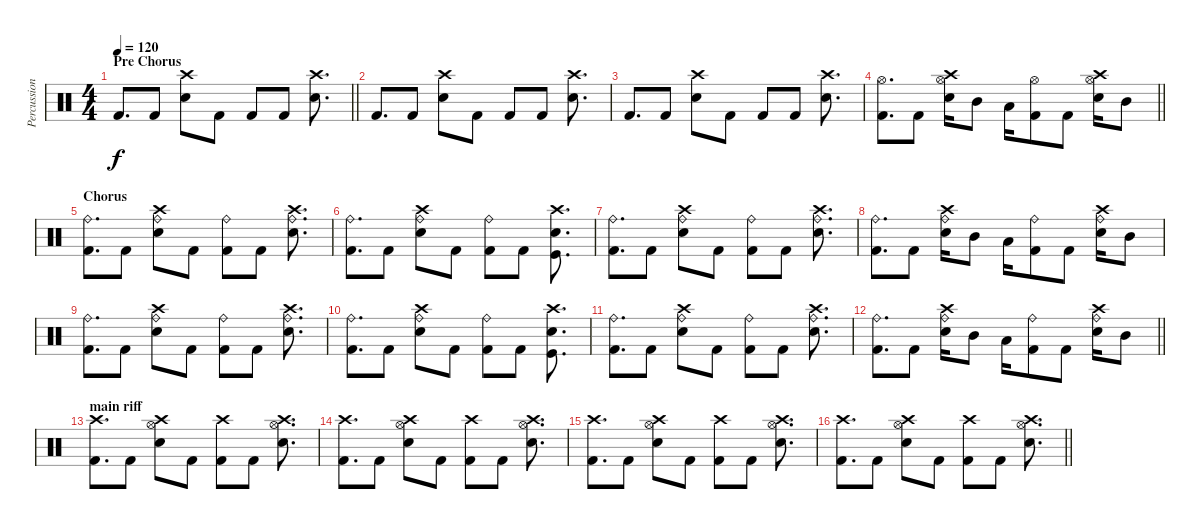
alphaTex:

\track ("Percussion" "Percussion") {instrument percussion}
\staff {score}
\articulation defaults
\ts (4 4)
\section ("" "Pre Chorus")
\tempo 120
\clef neutral
\barLineRight lightlight
\ks c "Kick (hit) 2".8{d dy f} "Kick (hit) 2".8
("Crash high (hit)" "Electric Snare (hit)").8 "Kick (hit) 2".8 "Kick (hit) 2".8 "Kick (hit) 2".8 ("Crash high (hit)" "Electric Snare (hit)").8{d} |
\section ("" "")
"Kick (hit) 2".8{d} "Kick (hit) 2".8 ("Crash high (hit)" "Electric Snare (hit)").8 "Kick (hit) 2".8 "Kick (hit) 2".8 "Kick (hit) 2".8 ("Crash high (hit)" "Electric Snare (hit)").8{d} |
"Kick (hit) 2".8{d} "Kick (hit) 2".8 ("Crash high (hit)" "Electric Snare (hit)").8 "Kick (hit) 2".8 "Kick (hit) 2".8 "Kick (hit) 2".8 ("Crash high (hit)" "Electric Snare (hit)").8{d} |
\barLineRight lightlight
("Hi-Hat (open)" "Kick (hit) 2").8{d} "Kick (hit) 2".8 ("Hi-Hat (open)" "Crash high (hit)" "Electric Snare (hit)").16 "Mid Tom (hit)".8 "Low Tom (hit)".16 ("Hi-Hat (open)" "Kick (hit) 2").8 "Kick (hit) 2".8 ("Hi-Hat (open)" "Crash high (hit)" "Electric Snare (hit)").16 "Mid Tom (hit)".8 |
\section ("" "Chorus")
("Ride (bell)" "Kick (hit) 2").8{d} "Kick (hit) 2".8 ("Ride (bell)" "Crash high (hit)" "Electric Snare (hit)").8 "Kick (hit) 2".8 ("Ride (bell)" "Kick (hit) 2").8 "Kick (hit) 2".8 ("Ride (bell)" "Crash high (hit)" "Electric Snare (hit)").8{d} |
("Ride (bell)" "Kick (hit) 2").8{d} "Kick (hit) 2".8 ("Ride (bell)" "Crash high (hit)" "Electric Snare (hit)").8 "Kick (hit) 2".8 ("Ride (bell)" "Kick (hit) 2").8 "Kick (hit) 2".8 ("Kick (hit)" "Crash high (hit)" "Electric Snare (hit)").8{d} |
("Ride (bell)" "Kick (hit) 2").8{d} "Kick (hit) 2".8 ("Ride (bell)" "Crash high (hit)" "Electric Snare (hit)").8 "Kick (hit) 2".8 ("Ride (bell)" "Kick (hit) 2").8 "Kick (hit) 2".8 ("Ride (bell)" "Crash high (hit)" "Electric Snare (hit)").8{d} |
("Ride (bell)" "Kick (hit) 2").8{d} "Kick (hit) 2".8 ("Ride (bell)" "Crash high (hit)" "Electric Snare (hit)").16 "Mid Tom (hit)".8 "Low Tom (hit)".16 ("Ride (bell)" "Kick (hit) 2").8 "Kick (hit) 2".8 ("Ride (bell)" "Crash high (hit)" "Electric Snare (hit)").16 "Mid Tom (hit)".8 |
("Ride (bell)" "Kick (hit) 2").8{d} "Kick (hit) 2".8 ("Ride (bell)" "Crash high (hit)" "Electric Snare (hit)").8 "Kick (hit) 2".8 ("Ride (bell)" "Kick (hit) 2").8 "Kick (hit) 2".8 ("Ride (bell)" "Crash high (hit)" "Electric Snare (hit)").8{d} |
("Ride (bell)" "Kick (hit) 2").8{d} "Kick (hit) 2".8 ("Ride (bell)" "Crash high (hit)" "Electric Snare (hit)").8 "Kick (hit) 2".8 ("Ride (bell)" "Kick (hit) 2").8 "Kick (hit) 2".8 ("Kick (hit)" "Crash high (hit)" "Electric Snare (hit)").8{d} |
("Ride (bell)" "Kick (hit) 2").8{d} "Kick (hit) 2".8 ("Ride (bell)" "Crash high (hit)" "Electric Snare (hit)").8 "Kick (hit) 2".8 ("Ride (bell)" "Kick (hit) 2").8 "Kick (hit) 2".8 ("Ride (bell)" "Crash high (hit)" "Electric Snare (hit)").8{d} |
\barLineRight lightlight
("Ride (bell)" "Kick (hit) 2").8{d} "Kick (hit) 2".8 ("Ride (bell)" "Crash high (hit)" "Electric Snare (hit)").16 "Mid Tom (hit)".8 "Low Tom (hit)".16 ("Ride (bell)" "Kick (hit) 2").8 "Kick (hit) 2".8 ("Ride (bell)" "Crash high (hit)" "Electric Snare (hit)").16 "Mid Tom (hit)".8 |
\section ("" "main riff")
("Crash high (hit)" "Kick (hit) 2").8{d} "Kick (hit) 2".8 ("Crash high (hit)" "Hi-Hat (open)" "Electric Snare (hit)").8 "Kick (hit) 2".8 ("Crash high (hit)" "Kick (hit) 2").8 "Kick (hit) 2".8 ("Crash high (hit)" "Hi-Hat (open)" "Electric Snare (hit)").8{d} |
("Crash high (hit)" "Kick (hit) 2").8{d} "Kick (hit) 2".8 ("Crash high (hit)" "Hi-Hat (open)" "Electric Snare (hit)").8 "Kick (hit) 2".8 ("Crash high (hit)" "Kick (hit) 2").8 "Kick (hit) 2".8 ("Crash high (hit)" "Hi-Hat (open)" "Electric Snare (hit)").8{d} |
("Crash high (hit)" "Kick (hit) 2").8{d} "Kick (hit) 2".8 ("Crash high (hit)" "Hi-Hat (open)" "Electric Snare (hit)").8 "Kick (hit) 2".8 ("Crash high (hit)" "Kick (hit) 2").8 "Kick (hit) 2".8 ("Crash high (hit)" "Hi-Hat (open)" "Electric Snare (hit)").8{d} |
\barLineRight lightlight
("Crash high (hit)" "Kick (hit) 2").8{d} "Kick (hit) 2".8 ("Crash high (hit)" "Hi-Hat (open)" "Electric Snare (hit)").8 "Kick (hit) 2".8 ("Crash high (hit)" "Kick (hit) 2").8 "Kick (hit) 2".8 ("Crash high (hit)" "Hi-Hat (open)" "Electric Snare (hit)").8{d}
